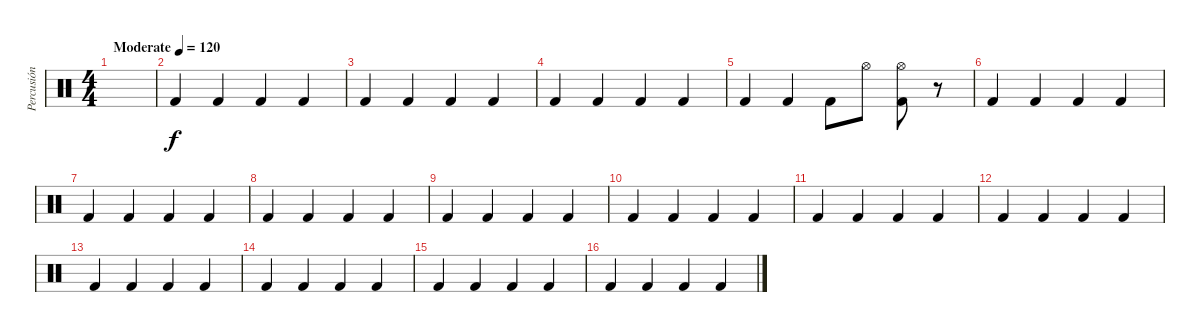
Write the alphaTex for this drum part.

\track ("Percusión" "Percusión") {instrument percussion}
\staff {score}
\articulation defaults
\ts (4 4)
\tempo (120 "Moderate")
\clef neutral
\ks c
|
"Kick (hit) 2".4 "Kick (hit) 2".4 "Kick (hit) 2".4 "Kick (hit) 2".4 |
"Kick (hit) 2".4 "Kick (hit) 2".4 "Kick (hit) 2".4 "Kick (hit) 2".4 |
"Kick (hit) 2".4 "Kick (hit) 2".4 "Kick (hit) 2".4 "Kick (hit) 2".4 |
"Kick (hit) 2".4 "Kick (hit) 2".4 "Kick (hit) 2".8 "Hi-Hat (open)".8 ("Kick (hit) 2" "Hi-Hat (open)").8 r.8 |
"Kick (hit) 2".4 "Kick (hit) 2".4 "Kick (hit) 2".4 "Kick (hit) 2".4 |
"Kick (hit) 2".4 "Kick (hit) 2".4 "Kick (hit) 2".4 "Kick (hit) 2".4 |
"Kick (hit) 2".4 "Kick (hit) 2".4 "Kick (hit) 2".4 "Kick (hit) 2".4 |
"Kick (hit) 2".4 "Kick (hit) 2".4 "Kick (hit) 2".4 "Kick (hit) 2".4 |
"Kick (hit) 2".4 "Kick (hit) 2".4 "Kick (hit) 2".4 "Kick (hit) 2".4 |
"Kick (hit) 2".4 "Kick (hit) 2".4 "Kick (hit) 2".4 "Kick (hit) 2".4 |
"Kick (hit) 2".4 "Kick (hit) 2".4 "Kick (hit) 2".4 "Kick (hit) 2".4 |
"Kick (hit) 2".4 "Kick (hit) 2".4 "Kick (hit) 2".4 "Kick (hit) 2".4 |
"Kick (hit) 2".4 "Kick (hit) 2".4 "Kick (hit) 2".4 "Kick (hit) 2".4 |
"Kick (hit) 2".4 "Kick (hit) 2".4 "Kick (hit) 2".4 "Kick (hit) 2".4 |
"Kick (hit) 2".4 "Kick (hit) 2".4 "Kick (hit) 2".4 "Kick (hit) 2".4
